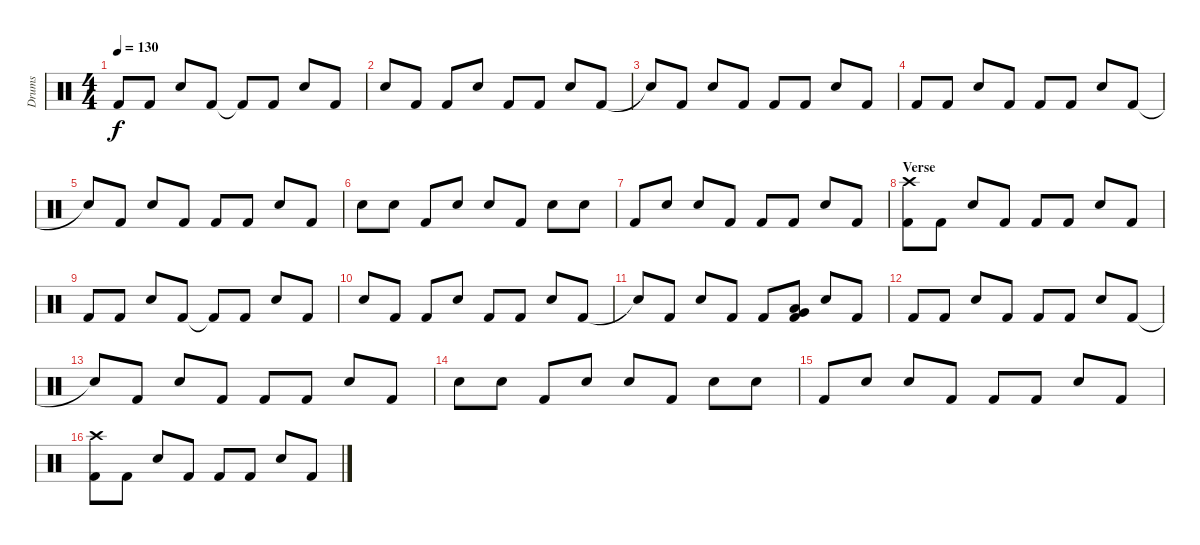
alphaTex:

\track ("Drums" "Drums") {instrument percussion}
\staff {score}
\articulation defaults
\ts (4 4)
\tempo 130
\clef neutral
\ks c "Kick (hit) 2".8{dy f} "Kick (hit) 2".8 "Electric Snare (hit)".8 "Kick (hit) 2".8 "Kick (hit) 2"{t}.8 "Kick (hit) 2".8 "Electric Snare (hit)".8 "Kick (hit) 2".8
|
"Electric Snare (hit)".8 "Kick (hit) 2".8 "Kick (hit) 2".8 "Electric Snare (hit)".8 "Kick (hit) 2".8 "Kick (hit) 2".8 "Electric Snare (hit)".8 "Kick (hit) 2".8 |
"Snare (hit)"{t}.8 "Kick (hit) 2".8 "Electric Snare (hit)".8 "Kick (hit) 2".8 "Kick (hit) 2".8 "Kick (hit) 2".8 "Electric Snare (hit)".8 "Kick (hit) 2".8 |
"Kick (hit) 2".8 "Kick (hit) 2".8 "Electric Snare (hit)".8 "Kick (hit) 2".8 "Kick (hit) 2".8 "Kick (hit) 2".8 "Electric Snare (hit)".8 "Kick (hit) 2".8 |
"Snare (hit)"{t}.8 "Kick (hit) 2".8 "Electric Snare (hit)".8 "Kick (hit) 2".8 "Kick (hit) 2".8 "Kick (hit) 2".8 "Electric Snare (hit)".8 "Kick (hit) 2".8 |
"Electric Snare (hit)".8 "Electric Snare (hit)".8 "Kick (hit) 2".8 "Electric Snare (hit)".8 "Electric Snare (hit)".8 "Kick (hit) 2".8 "Electric Snare (hit)".8 "Electric Snare (hit)".8 |
"Kick (hit) 2".8 "Electric Snare (hit)".8 "Electric Snare (hit)".8 "Kick (hit) 2".8 "Kick (hit) 2".8 "Kick (hit) 2".8 "Electric Snare (hit)".8 "Kick (hit) 2".8 |
\section ("" "Verse")
("Crash high (hit)" "Kick (hit) 2").8 "Kick (hit) 2".8 "Electric Snare (hit)".8 "Kick (hit) 2".8 "Kick (hit) 2".8 "Kick (hit) 2".8 "Electric Snare (hit)".8 "Kick (hit) 2".8 |
"Kick (hit) 2".8 "Kick (hit) 2".8 "Electric Snare (hit)".8 "Kick (hit) 2".8 "Kick (hit) 2"{t}.8 "Kick (hit) 2".8 "Electric Snare (hit)".8 "Kick (hit) 2".8 |
"Electric Snare (hit)".8 "Kick (hit) 2".8 "Kick (hit) 2".8 "Electric Snare (hit)".8 "Kick (hit) 2".8 "Kick (hit) 2".8 "Electric Snare (hit)".8 "Kick (hit) 2".8 |
"Snare (hit)"{t}.8 "Kick (hit) 2".8 "Electric Snare (hit)".8 "Kick (hit) 2".8 "Kick (hit) 2".8 ("Low Floor Tom (hit)" "Very Low Tom (hit)" "Kick (hit) 2").8 "Electric Snare (hit)".8 "Kick (hit) 2".8 |
"Kick (hit) 2".8 "Kick (hit) 2".8 "Electric Snare (hit)".8 "Kick (hit) 2".8 "Kick (hit) 2".8 "Kick (hit) 2".8 "Electric Snare (hit)".8 "Kick (hit) 2".8 |
"Snare (hit)"{t}.8 "Kick (hit) 2".8 "Electric Snare (hit)".8 "Kick (hit) 2".8 "Kick (hit) 2".8 "Kick (hit) 2".8 "Electric Snare (hit)".8 "Kick (hit) 2".8 |
"Electric Snare (hit)".8 "Electric Snare (hit)".8 "Kick (hit) 2".8 "Electric Snare (hit)".8 "Electric Snare (hit)".8 "Kick (hit) 2".8 "Electric Snare (hit)".8 "Electric Snare (hit)".8 |
"Kick (hit) 2".8 "Electric Snare (hit)".8 "Electric Snare (hit)".8 "Kick (hit) 2".8 "Kick (hit) 2".8 "Kick (hit) 2".8 "Electric Snare (hit)".8 "Kick (hit) 2".8 |
("Crash high (hit)" "Kick (hit) 2").8 "Kick (hit) 2".8 "Electric Snare (hit)".8 "Kick (hit) 2".8 "Kick (hit) 2".8 "Kick (hit) 2".8 "Electric Snare (hit)".8 "Kick (hit) 2".8
